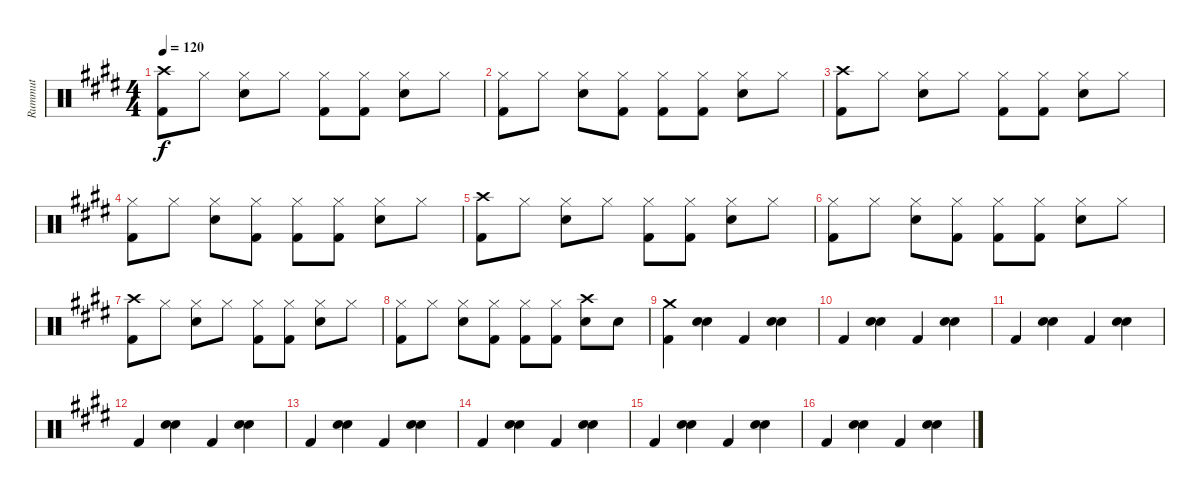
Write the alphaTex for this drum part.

\track ("Rummut" "Rummut") {instrument percussion}
\staff {score}
\articulation defaults
\ts (4 4)
\tempo 120
\clef neutral
\ks e
("Crash high (hit)" "Kick (hit) 2").8{dy f} "Hi-Hat (closed)".8 ("Hi-Hat (closed)" "Electric Snare (hit)").8 "Hi-Hat (closed)".8 ("Hi-Hat (closed)" "Kick (hit) 2").8 ("Hi-Hat (closed)" "Kick (hit) 2").8 ("Hi-Hat (closed)" "Electric Snare (hit)").8 "Hi-Hat (closed)".8 |
("Hi-Hat (closed)" "Kick (hit) 2").8 "Hi-Hat (closed)".8 ("Hi-Hat (closed)" "Electric Snare (hit)").8 ("Hi-Hat (closed)" "Kick (hit) 2").8 ("Hi-Hat (closed)" "Kick (hit) 2").8 ("Hi-Hat (closed)" "Kick (hit) 2").8 ("Hi-Hat (closed)" "Electric Snare (hit)").8 "Hi-Hat (closed)".8 |
("Crash high (hit)" "Kick (hit) 2").8 "Hi-Hat (closed)".8 ("Hi-Hat (closed)" "Electric Snare (hit)").8 "Hi-Hat (closed)".8 ("Hi-Hat (closed)" "Kick (hit) 2").8 ("Hi-Hat (closed)" "Kick (hit) 2").8 ("Hi-Hat (closed)" "Electric Snare (hit)").8 "Hi-Hat (closed)".8 |
("Hi-Hat (closed)" "Kick (hit) 2").8 "Hi-Hat (closed)".8 ("Hi-Hat (closed)" "Electric Snare (hit)").8 ("Hi-Hat (closed)" "Kick (hit) 2").8 ("Hi-Hat (closed)" "Kick (hit) 2").8 ("Hi-Hat (closed)" "Kick (hit) 2").8 ("Hi-Hat (closed)" "Electric Snare (hit)").8 "Hi-Hat (closed)".8 |
("Crash high (hit)" "Kick (hit) 2").8 "Hi-Hat (closed)".8 ("Hi-Hat (closed)" "Electric Snare (hit)").8 "Hi-Hat (closed)".8 ("Hi-Hat (closed)" "Kick (hit) 2").8 ("Hi-Hat (closed)" "Kick (hit) 2").8 ("Hi-Hat (closed)" "Electric Snare (hit)").8 "Hi-Hat (closed)".8 |
("Hi-Hat (closed)" "Kick (hit) 2").8 "Hi-Hat (closed)".8 ("Hi-Hat (closed)" "Electric Snare (hit)").8 ("Hi-Hat (closed)" "Kick (hit) 2").8 ("Hi-Hat (closed)" "Kick (hit) 2").8 ("Hi-Hat (closed)" "Kick (hit) 2").8 ("Hi-Hat (closed)" "Electric Snare (hit)").8 "Hi-Hat (closed)".8 |
("Crash high (hit)" "Kick (hit) 2").8 "Hi-Hat (closed)".8 ("Hi-Hat (closed)" "Electric Snare (hit)").8 "Hi-Hat (closed)".8 ("Hi-Hat (closed)" "Kick (hit) 2").8 ("Hi-Hat (closed)" "Kick (hit) 2").8 ("Hi-Hat (closed)" "Electric Snare (hit)").8 "Hi-Hat (closed)".8 |
("Hi-Hat (closed)" "Kick (hit) 2").8 "Hi-Hat (closed)".8 ("Hi-Hat (closed)" "Electric Snare (hit)").8 ("Hi-Hat (closed)" "Kick (hit) 2").8 ("Hi-Hat (closed)" "Kick (hit) 2").8 ("Hi-Hat (closed)" "Kick (hit) 2").8 ("Crash high (hit)" "Electric Snare (hit)").8 "Electric Snare (hit)".8 |
("Crash medium (hit)" "Kick (hit) 2").4 ("Electric Snare (hit)" "Hand Clap (hit)").4{bd 120} "Kick (hit) 2".4 ("Electric Snare (hit)" "Hand Clap (hit)").4{bd 120} |
"Kick (hit) 2".4 ("Electric Snare (hit)" "Hand Clap (hit)").4{bd 120} "Kick (hit) 2".4 ("Electric Snare (hit)" "Hand Clap (hit)").4{bd 120} |
"Kick (hit) 2".4 ("Electric Snare (hit)" "Hand Clap (hit)").4{bd 120} "Kick (hit) 2".4 ("Electric Snare (hit)" "Hand Clap (hit)").4{bd 120} |
"Kick (hit) 2".4 ("Electric Snare (hit)" "Hand Clap (hit)").4{bd 120} "Kick (hit) 2".4 ("Electric Snare (hit)" "Hand Clap (hit)").4{bd 120} |
"Kick (hit) 2".4 ("Electric Snare (hit)" "Hand Clap (hit)").4{bd 120} "Kick (hit) 2".4 ("Electric Snare (hit)" "Hand Clap (hit)").4{bd 120} |
"Kick (hit) 2".4 ("Electric Snare (hit)" "Hand Clap (hit)").4{bd 120} "Kick (hit) 2".4 ("Electric Snare (hit)" "Hand Clap (hit)").4{bd 120} |
"Kick (hit) 2".4 ("Electric Snare (hit)" "Hand Clap (hit)").4{bd 120} "Kick (hit) 2".4 ("Electric Snare (hit)" "Hand Clap (hit)").4{bd 120} |
"Kick (hit) 2".4 ("Electric Snare (hit)" "Hand Clap (hit)").4{bd 120} "Kick (hit) 2".4 ("Electric Snare (hit)" "Hand Clap (hit)").4{bd 120}
